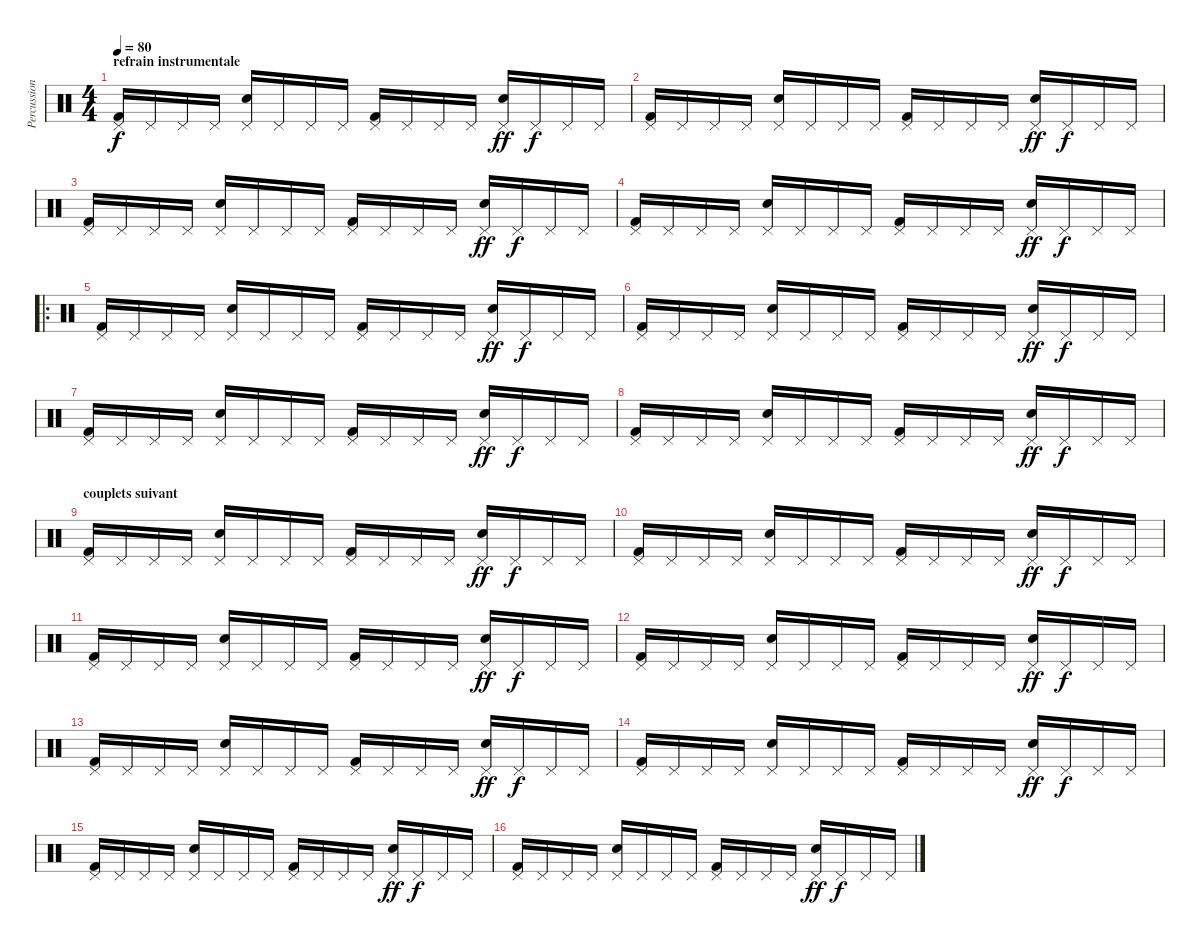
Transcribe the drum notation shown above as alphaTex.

\track ("Percussions" "Percussion") {instrument percussion}
\staff {score}
\articulation defaults
\ts (4 4)
\section ("" "refrain instrumentale")
\tempo 80
\clef neutral
\ks c
("Pedal Hi-Hat (hit)" "Kick (hit) 2").16{dy f} "Pedal Hi-Hat (hit)".16 "Pedal Hi-Hat (hit)".16 "Pedal Hi-Hat (hit)".16 ("Pedal Hi-Hat (hit)" "Electric Snare (hit)").16 "Pedal Hi-Hat (hit)".16 "Pedal Hi-Hat (hit)".16 "Pedal Hi-Hat (hit)".16 ("Pedal Hi-Hat (hit)" "Kick (hit) 2").16 "Pedal Hi-Hat (hit)".16 "Pedal Hi-Hat (hit)".16 "Pedal Hi-Hat (hit)".16 ("Pedal Hi-Hat (hit)" "Electric Snare (hit)").16{dy ff} "Pedal Hi-Hat (hit)".16{dy f} "Pedal Hi-Hat (hit)".16 "Pedal Hi-Hat (hit)".16 |
("Pedal Hi-Hat (hit)" "Kick (hit) 2").16 "Pedal Hi-Hat (hit)".16 "Pedal Hi-Hat (hit)".16 "Pedal Hi-Hat (hit)".16 ("Pedal Hi-Hat (hit)" "Electric Snare (hit)").16 "Pedal Hi-Hat (hit)".16 "Pedal Hi-Hat (hit)".16 "Pedal Hi-Hat (hit)".16 ("Pedal Hi-Hat (hit)" "Kick (hit) 2").16 "Pedal Hi-Hat (hit)".16 "Pedal Hi-Hat (hit)".16 "Pedal Hi-Hat (hit)".16 ("Pedal Hi-Hat (hit)" "Electric Snare (hit)").16{dy ff} "Pedal Hi-Hat (hit)".16{dy f} "Pedal Hi-Hat (hit)".16 "Pedal Hi-Hat (hit)".16 |
("Pedal Hi-Hat (hit)" "Kick (hit) 2").16 "Pedal Hi-Hat (hit)".16 "Pedal Hi-Hat (hit)".16 "Pedal Hi-Hat (hit)".16 ("Pedal Hi-Hat (hit)" "Electric Snare (hit)").16 "Pedal Hi-Hat (hit)".16 "Pedal Hi-Hat (hit)".16 "Pedal Hi-Hat (hit)".16 ("Pedal Hi-Hat (hit)" "Kick (hit) 2").16 "Pedal Hi-Hat (hit)".16 "Pedal Hi-Hat (hit)".16 "Pedal Hi-Hat (hit)".16 ("Pedal Hi-Hat (hit)" "Electric Snare (hit)").16{dy ff} "Pedal Hi-Hat (hit)".16{dy f} "Pedal Hi-Hat (hit)".16 "Pedal Hi-Hat (hit)".16 |
("Pedal Hi-Hat (hit)" "Kick (hit) 2").16 "Pedal Hi-Hat (hit)".16 "Pedal Hi-Hat (hit)".16 "Pedal Hi-Hat (hit)".16 ("Pedal Hi-Hat (hit)" "Electric Snare (hit)").16 "Pedal Hi-Hat (hit)".16 "Pedal Hi-Hat (hit)".16 "Pedal Hi-Hat (hit)".16 ("Pedal Hi-Hat (hit)" "Kick (hit) 2").16 "Pedal Hi-Hat (hit)".16 "Pedal Hi-Hat (hit)".16 "Pedal Hi-Hat (hit)".16 ("Pedal Hi-Hat (hit)" "Electric Snare (hit)").16{dy ff} "Pedal Hi-Hat (hit)".16{dy f} "Pedal Hi-Hat (hit)".16 "Pedal Hi-Hat (hit)".16 |
\ro
("Pedal Hi-Hat (hit)" "Kick (hit) 2").16 "Pedal Hi-Hat (hit)".16 "Pedal Hi-Hat (hit)".16 "Pedal Hi-Hat (hit)".16 ("Pedal Hi-Hat (hit)" "Electric Snare (hit)").16 "Pedal Hi-Hat (hit)".16 "Pedal Hi-Hat (hit)".16 "Pedal Hi-Hat (hit)".16 ("Pedal Hi-Hat (hit)" "Kick (hit) 2").16 "Pedal Hi-Hat (hit)".16 "Pedal Hi-Hat (hit)".16 "Pedal Hi-Hat (hit)".16 ("Pedal Hi-Hat (hit)" "Electric Snare (hit)").16{dy ff} "Pedal Hi-Hat (hit)".16{dy f} "Pedal Hi-Hat (hit)".16 "Pedal Hi-Hat (hit)".16 |
("Pedal Hi-Hat (hit)" "Kick (hit) 2").16 "Pedal Hi-Hat (hit)".16 "Pedal Hi-Hat (hit)".16 "Pedal Hi-Hat (hit)".16 ("Pedal Hi-Hat (hit)" "Electric Snare (hit)").16 "Pedal Hi-Hat (hit)".16 "Pedal Hi-Hat (hit)".16 "Pedal Hi-Hat (hit)".16 ("Pedal Hi-Hat (hit)" "Kick (hit) 2").16 "Pedal Hi-Hat (hit)".16 "Pedal Hi-Hat (hit)".16 "Pedal Hi-Hat (hit)".16 ("Pedal Hi-Hat (hit)" "Electric Snare (hit)").16{dy ff} "Pedal Hi-Hat (hit)".16{dy f} "Pedal Hi-Hat (hit)".16 "Pedal Hi-Hat (hit)".16 |
("Pedal Hi-Hat (hit)" "Kick (hit) 2").16 "Pedal Hi-Hat (hit)".16 "Pedal Hi-Hat (hit)".16 "Pedal Hi-Hat (hit)".16 ("Pedal Hi-Hat (hit)" "Electric Snare (hit)").16 "Pedal Hi-Hat (hit)".16 "Pedal Hi-Hat (hit)".16 "Pedal Hi-Hat (hit)".16 ("Pedal Hi-Hat (hit)" "Kick (hit) 2").16 "Pedal Hi-Hat (hit)".16 "Pedal Hi-Hat (hit)".16 "Pedal Hi-Hat (hit)".16 ("Pedal Hi-Hat (hit)" "Electric Snare (hit)").16{dy ff} "Pedal Hi-Hat (hit)".16{dy f} "Pedal Hi-Hat (hit)".16 "Pedal Hi-Hat (hit)".16 |
("Pedal Hi-Hat (hit)" "Kick (hit) 2").16 "Pedal Hi-Hat (hit)".16 "Pedal Hi-Hat (hit)".16 "Pedal Hi-Hat (hit)".16 ("Pedal Hi-Hat (hit)" "Electric Snare (hit)").16 "Pedal Hi-Hat (hit)".16 "Pedal Hi-Hat (hit)".16 "Pedal Hi-Hat (hit)".16 ("Pedal Hi-Hat (hit)" "Kick (hit) 2").16 "Pedal Hi-Hat (hit)".16 "Pedal Hi-Hat (hit)".16 "Pedal Hi-Hat (hit)".16 ("Pedal Hi-Hat (hit)" "Electric Snare (hit)").16{dy ff} "Pedal Hi-Hat (hit)".16{dy f} "Pedal Hi-Hat (hit)".16 "Pedal Hi-Hat (hit)".16 |
\section ("" "couplets suivant")
("Pedal Hi-Hat (hit)" "Kick (hit) 2").16 "Pedal Hi-Hat (hit)".16 "Pedal Hi-Hat (hit)".16 "Pedal Hi-Hat (hit)".16 ("Pedal Hi-Hat (hit)" "Electric Snare (hit)").16 "Pedal Hi-Hat (hit)".16 "Pedal Hi-Hat (hit)".16 "Pedal Hi-Hat (hit)".16 ("Pedal Hi-Hat (hit)" "Kick (hit) 2").16 "Pedal Hi-Hat (hit)".16 "Pedal Hi-Hat (hit)".16 "Pedal Hi-Hat (hit)".16 ("Pedal Hi-Hat (hit)" "Electric Snare (hit)").16{dy ff} "Pedal Hi-Hat (hit)".16{dy f} "Pedal Hi-Hat (hit)".16 "Pedal Hi-Hat (hit)".16 |
("Pedal Hi-Hat (hit)" "Kick (hit) 2").16 "Pedal Hi-Hat (hit)".16 "Pedal Hi-Hat (hit)".16 "Pedal Hi-Hat (hit)".16 ("Pedal Hi-Hat (hit)" "Electric Snare (hit)").16 "Pedal Hi-Hat (hit)".16 "Pedal Hi-Hat (hit)".16 "Pedal Hi-Hat (hit)".16 ("Pedal Hi-Hat (hit)" "Kick (hit) 2").16 "Pedal Hi-Hat (hit)".16 "Pedal Hi-Hat (hit)".16 "Pedal Hi-Hat (hit)".16 ("Pedal Hi-Hat (hit)" "Electric Snare (hit)").16{dy ff} "Pedal Hi-Hat (hit)".16{dy f} "Pedal Hi-Hat (hit)".16 "Pedal Hi-Hat (hit)".16 |
("Pedal Hi-Hat (hit)" "Kick (hit) 2").16 "Pedal Hi-Hat (hit)".16 "Pedal Hi-Hat (hit)".16 "Pedal Hi-Hat (hit)".16 ("Pedal Hi-Hat (hit)" "Electric Snare (hit)").16 "Pedal Hi-Hat (hit)".16 "Pedal Hi-Hat (hit)".16 "Pedal Hi-Hat (hit)".16 ("Pedal Hi-Hat (hit)" "Kick (hit) 2").16 "Pedal Hi-Hat (hit)".16 "Pedal Hi-Hat (hit)".16 "Pedal Hi-Hat (hit)".16 ("Pedal Hi-Hat (hit)" "Electric Snare (hit)").16{dy ff} "Pedal Hi-Hat (hit)".16{dy f} "Pedal Hi-Hat (hit)".16 "Pedal Hi-Hat (hit)".16 |
("Pedal Hi-Hat (hit)" "Kick (hit) 2").16 "Pedal Hi-Hat (hit)".16 "Pedal Hi-Hat (hit)".16 "Pedal Hi-Hat (hit)".16 ("Pedal Hi-Hat (hit)" "Electric Snare (hit)").16 "Pedal Hi-Hat (hit)".16 "Pedal Hi-Hat (hit)".16 "Pedal Hi-Hat (hit)".16 ("Pedal Hi-Hat (hit)" "Kick (hit) 2").16 "Pedal Hi-Hat (hit)".16 "Pedal Hi-Hat (hit)".16 "Pedal Hi-Hat (hit)".16 ("Pedal Hi-Hat (hit)" "Electric Snare (hit)").16{dy ff} "Pedal Hi-Hat (hit)".16{dy f} "Pedal Hi-Hat (hit)".16 "Pedal Hi-Hat (hit)".16 |
("Pedal Hi-Hat (hit)" "Kick (hit) 2").16 "Pedal Hi-Hat (hit)".16 "Pedal Hi-Hat (hit)".16 "Pedal Hi-Hat (hit)".16 ("Pedal Hi-Hat (hit)" "Electric Snare (hit)").16 "Pedal Hi-Hat (hit)".16 "Pedal Hi-Hat (hit)".16 "Pedal Hi-Hat (hit)".16 ("Pedal Hi-Hat (hit)" "Kick (hit) 2").16 "Pedal Hi-Hat (hit)".16 "Pedal Hi-Hat (hit)".16 "Pedal Hi-Hat (hit)".16 ("Pedal Hi-Hat (hit)" "Electric Snare (hit)").16{dy ff} "Pedal Hi-Hat (hit)".16{dy f} "Pedal Hi-Hat (hit)".16 "Pedal Hi-Hat (hit)".16 |
("Pedal Hi-Hat (hit)" "Kick (hit) 2").16 "Pedal Hi-Hat (hit)".16 "Pedal Hi-Hat (hit)".16 "Pedal Hi-Hat (hit)".16 ("Pedal Hi-Hat (hit)" "Electric Snare (hit)").16 "Pedal Hi-Hat (hit)".16 "Pedal Hi-Hat (hit)".16 "Pedal Hi-Hat (hit)".16 ("Pedal Hi-Hat (hit)" "Kick (hit) 2").16 "Pedal Hi-Hat (hit)".16 "Pedal Hi-Hat (hit)".16 "Pedal Hi-Hat (hit)".16 ("Pedal Hi-Hat (hit)" "Electric Snare (hit)").16{dy ff} "Pedal Hi-Hat (hit)".16{dy f} "Pedal Hi-Hat (hit)".16 "Pedal Hi-Hat (hit)".16 |
("Pedal Hi-Hat (hit)" "Kick (hit) 2").16 "Pedal Hi-Hat (hit)".16 "Pedal Hi-Hat (hit)".16 "Pedal Hi-Hat (hit)".16 ("Pedal Hi-Hat (hit)" "Electric Snare (hit)").16 "Pedal Hi-Hat (hit)".16 "Pedal Hi-Hat (hit)".16 "Pedal Hi-Hat (hit)".16 ("Pedal Hi-Hat (hit)" "Kick (hit) 2").16 "Pedal Hi-Hat (hit)".16 "Pedal Hi-Hat (hit)".16 "Pedal Hi-Hat (hit)".16 ("Pedal Hi-Hat (hit)" "Electric Snare (hit)").16{dy ff} "Pedal Hi-Hat (hit)".16{dy f} "Pedal Hi-Hat (hit)".16 "Pedal Hi-Hat (hit)".16 |
("Pedal Hi-Hat (hit)" "Kick (hit) 2").16 "Pedal Hi-Hat (hit)".16 "Pedal Hi-Hat (hit)".16 "Pedal Hi-Hat (hit)".16 ("Pedal Hi-Hat (hit)" "Electric Snare (hit)").16 "Pedal Hi-Hat (hit)".16 "Pedal Hi-Hat (hit)".16 "Pedal Hi-Hat (hit)".16 ("Pedal Hi-Hat (hit)" "Kick (hit) 2").16 "Pedal Hi-Hat (hit)".16 "Pedal Hi-Hat (hit)".16 "Pedal Hi-Hat (hit)".16 ("Pedal Hi-Hat (hit)" "Electric Snare (hit)").16{dy ff} "Pedal Hi-Hat (hit)".16{dy f} "Pedal Hi-Hat (hit)".16 "Pedal Hi-Hat (hit)".16
